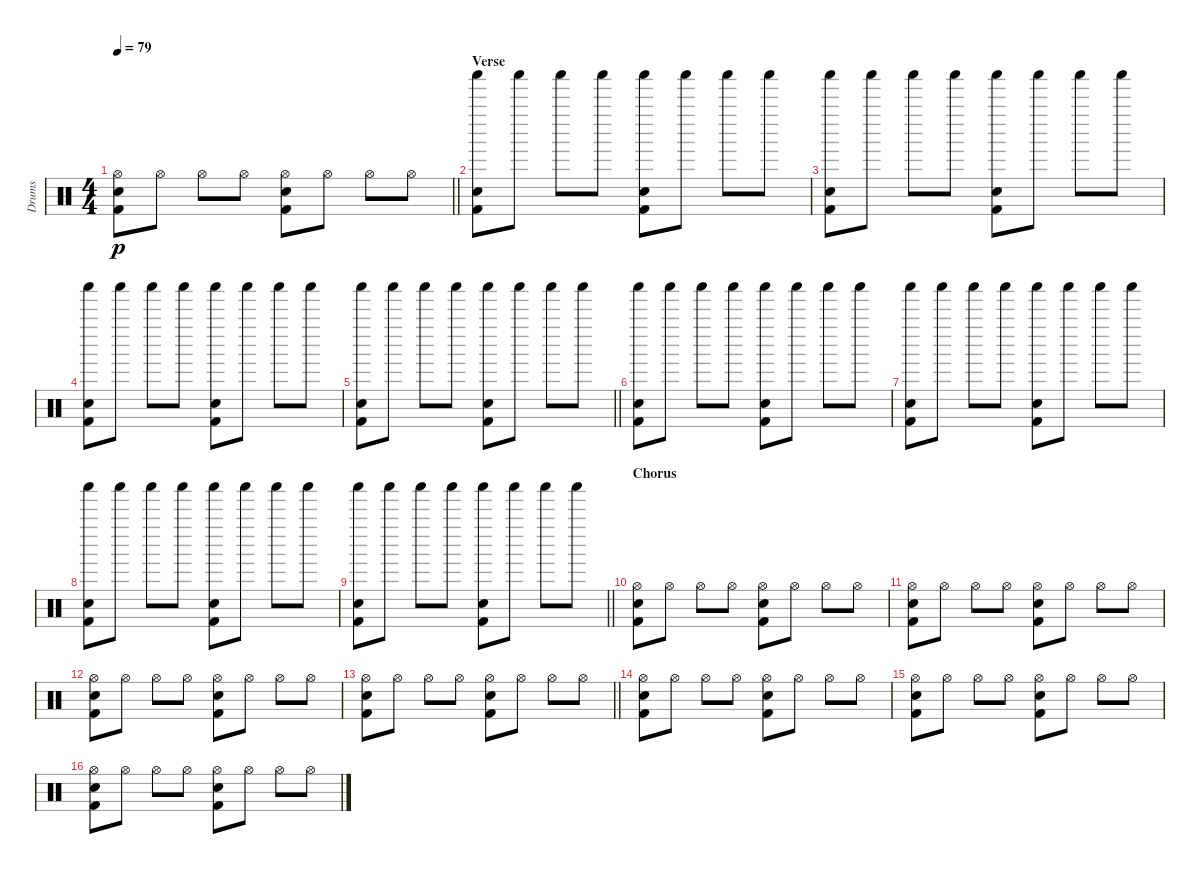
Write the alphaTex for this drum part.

\track ("Drums" "Drums") {instrument percussion}
\staff
\articulation defaults
\ts (4 4)
\tempo 79
\clef neutral
\barLineRight lightlight
\ks c
("Hi-Hat (open)" "Electric Snare (hit)" "Kick (hit) 2").8{dy p} "Hi-Hat (open)".8 "Hi-Hat (open)".8 "Hi-Hat (open)".8 ("Hi-Hat (open)" "Electric Snare (hit)" "Kick (hit) 2").8 "Hi-Hat (open)".8 "Hi-Hat (open)".8 "Hi-Hat (open)".8 |
\section ("" "Verse")
("Shaker (hit)" "Electric Snare (hit)" "Kick (hit) 2").8 "Shaker (hit)".8 "Shaker (hit)".8 "Shaker (hit)".8 ("Shaker (hit)" "Electric Snare (hit)" "Kick (hit) 2").8 "Shaker (hit)".8 "Shaker (hit)".8 "Shaker (hit)".8 |
("Shaker (hit)" "Electric Snare (hit)" "Kick (hit) 2").8 "Shaker (hit)".8 "Shaker (hit)".8 "Shaker (hit)".8 ("Shaker (hit)" "Electric Snare (hit)" "Kick (hit) 2").8 "Shaker (hit)".8 "Shaker (hit)".8 "Shaker (hit)".8 |
("Shaker (hit)" "Electric Snare (hit)" "Kick (hit) 2").8 "Shaker (hit)".8 "Shaker (hit)".8 "Shaker (hit)".8 ("Shaker (hit)" "Electric Snare (hit)" "Kick (hit) 2").8 "Shaker (hit)".8 "Shaker (hit)".8 "Shaker (hit)".8 |
\barLineRight lightlight
("Shaker (hit)" "Electric Snare (hit)" "Kick (hit) 2").8 "Shaker (hit)".8 "Shaker (hit)".8 "Shaker (hit)".8 ("Shaker (hit)" "Electric Snare (hit)" "Kick (hit) 2").8 "Shaker (hit)".8 "Shaker (hit)".8 "Shaker (hit)".8 |
("Shaker (hit)" "Electric Snare (hit)" "Kick (hit) 2").8 "Shaker (hit)".8 "Shaker (hit)".8 "Shaker (hit)".8 ("Shaker (hit)" "Electric Snare (hit)" "Kick (hit) 2").8 "Shaker (hit)".8 "Shaker (hit)".8 "Shaker (hit)".8 |
("Shaker (hit)" "Electric Snare (hit)" "Kick (hit) 2").8 "Shaker (hit)".8 "Shaker (hit)".8 "Shaker (hit)".8 ("Shaker (hit)" "Electric Snare (hit)" "Kick (hit) 2").8 "Shaker (hit)".8 "Shaker (hit)".8 "Shaker (hit)".8 |
("Shaker (hit)" "Electric Snare (hit)" "Kick (hit) 2").8 "Shaker (hit)".8 "Shaker (hit)".8 "Shaker (hit)".8 ("Shaker (hit)" "Electric Snare (hit)" "Kick (hit) 2").8 "Shaker (hit)".8 "Shaker (hit)".8 "Shaker (hit)".8 |
\barLineRight lightlight
("Shaker (hit)" "Electric Snare (hit)" "Kick (hit) 2").8 "Shaker (hit)".8 "Shaker (hit)".8 "Shaker (hit)".8 ("Shaker (hit)" "Electric Snare (hit)" "Kick (hit) 2").8 "Shaker (hit)".8 "Shaker (hit)".8 "Shaker (hit)".8 |
\section ("" "Chorus")
("Hi-Hat (open)" "Electric Snare (hit)" "Kick (hit) 2").8 "Hi-Hat (open)".8 "Hi-Hat (open)".8 "Hi-Hat (open)".8 ("Hi-Hat (open)" "Electric Snare (hit)" "Kick (hit) 2").8 "Hi-Hat (open)".8 "Hi-Hat (open)".8 "Hi-Hat (open)".8 |
("Hi-Hat (open)" "Electric Snare (hit)" "Kick (hit) 2").8 "Hi-Hat (open)".8 "Hi-Hat (open)".8 "Hi-Hat (open)".8 ("Hi-Hat (open)" "Electric Snare (hit)" "Kick (hit) 2").8 "Hi-Hat (open)".8 "Hi-Hat (open)".8 "Hi-Hat (open)".8 |
("Hi-Hat (open)" "Electric Snare (hit)" "Kick (hit) 2").8 "Hi-Hat (open)".8 "Hi-Hat (open)".8 "Hi-Hat (open)".8 ("Hi-Hat (open)" "Electric Snare (hit)" "Kick (hit) 2").8 "Hi-Hat (open)".8 "Hi-Hat (open)".8 "Hi-Hat (open)".8 |
\barLineRight lightlight
("Hi-Hat (open)" "Electric Snare (hit)" "Kick (hit) 2").8 "Hi-Hat (open)".8 "Hi-Hat (open)".8 "Hi-Hat (open)".8 ("Hi-Hat (open)" "Electric Snare (hit)" "Kick (hit) 2").8 "Hi-Hat (open)".8 "Hi-Hat (open)".8 "Hi-Hat (open)".8 |
("Hi-Hat (open)" "Electric Snare (hit)" "Kick (hit) 2").8 "Hi-Hat (open)".8 "Hi-Hat (open)".8 "Hi-Hat (open)".8 ("Hi-Hat (open)" "Electric Snare (hit)" "Kick (hit) 2").8 "Hi-Hat (open)".8 "Hi-Hat (open)".8 "Hi-Hat (open)".8 |
("Hi-Hat (open)" "Electric Snare (hit)" "Kick (hit) 2").8 "Hi-Hat (open)".8 "Hi-Hat (open)".8 "Hi-Hat (open)".8 ("Hi-Hat (open)" "Electric Snare (hit)" "Kick (hit) 2").8 "Hi-Hat (open)".8 "Hi-Hat (open)".8 "Hi-Hat (open)".8 |
("Hi-Hat (open)" "Electric Snare (hit)" "Kick (hit) 2").8 "Hi-Hat (open)".8 "Hi-Hat (open)".8 "Hi-Hat (open)".8 ("Hi-Hat (open)" "Electric Snare (hit)" "Kick (hit) 2").8 "Hi-Hat (open)".8 "Hi-Hat (open)".8 "Hi-Hat (open)".8
